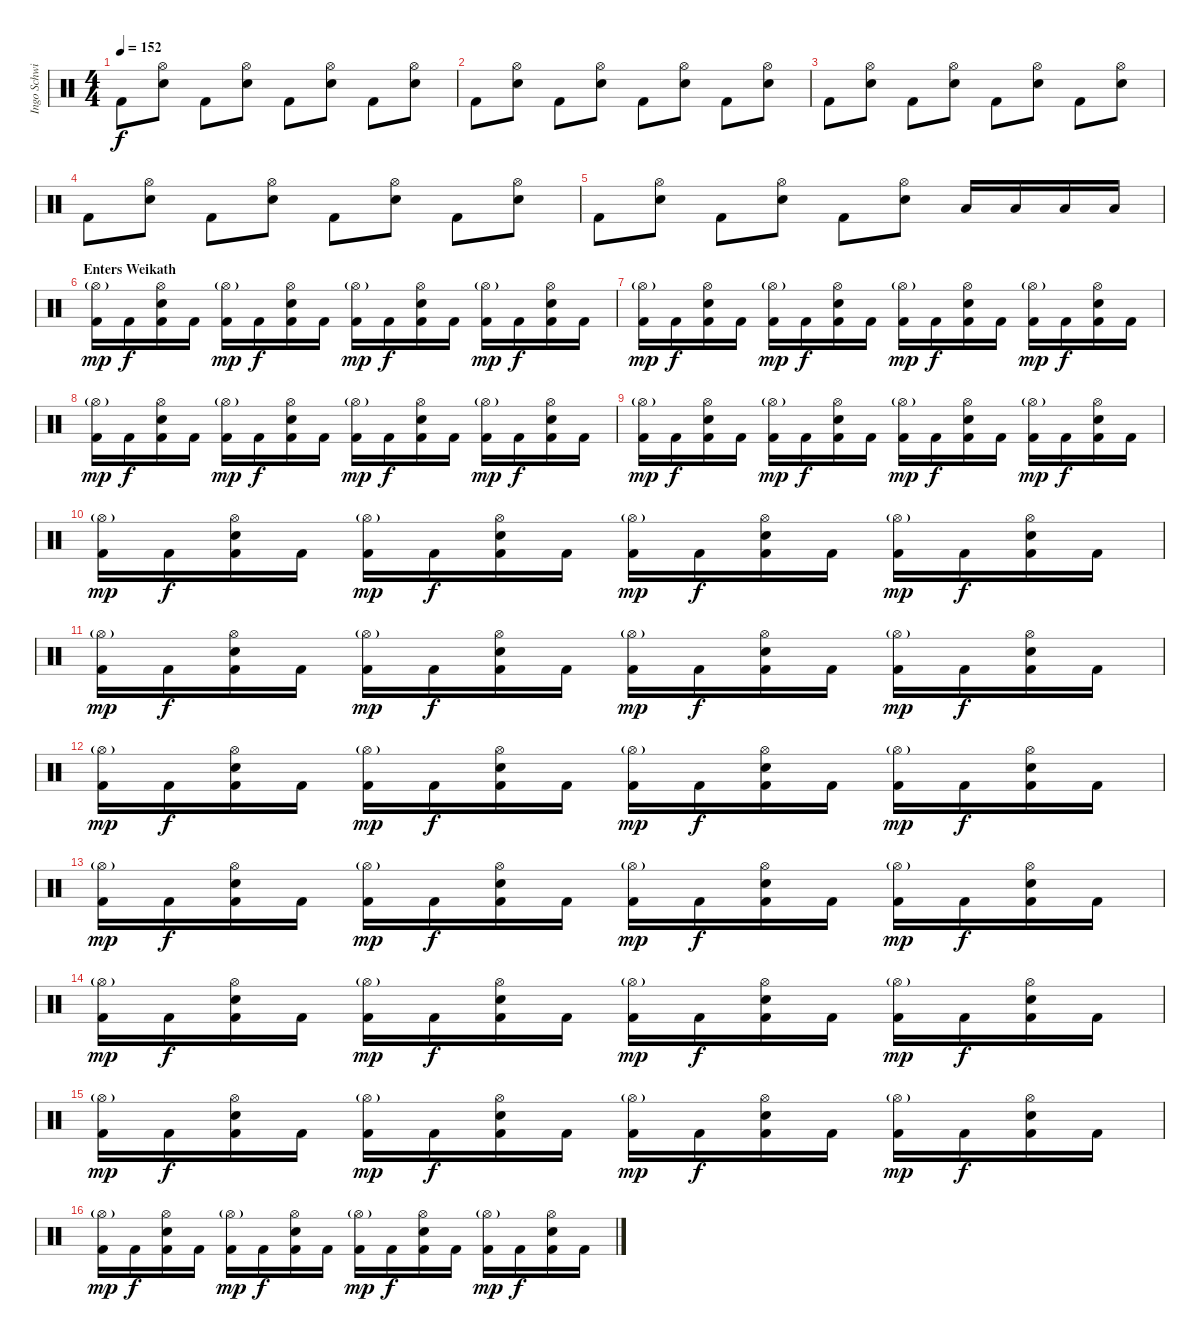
\track ("Ingo Schwichtenberg" "Ingo Schwi") {instrument percussion}
\staff {score}
\articulation defaults
\ts (4 4)
\tempo 152
\clef neutral
\ks c "Kick (hit) 2".8{dy f}
("Hi-Hat (open)" "Snare (hit) 2").8 "Kick (hit) 2".8 ("Hi-Hat (open)" "Snare (hit) 2").8 "Kick (hit) 2".8 ("Hi-Hat (open)" "Snare (hit) 2").8 "Kick (hit) 2".8 ("Hi-Hat (open)" "Snare (hit) 2").8 |
"Kick (hit) 2".8 ("Hi-Hat (open)" "Snare (hit) 2").8 "Kick (hit) 2".8 ("Hi-Hat (open)" "Snare (hit) 2").8 "Kick (hit) 2".8 ("Hi-Hat (open)" "Snare (hit) 2").8 "Kick (hit) 2".8 ("Hi-Hat (open)" "Snare (hit) 2").8 |
"Kick (hit) 2".8 ("Hi-Hat (open)" "Snare (hit) 2").8 "Kick (hit) 2".8 ("Hi-Hat (open)" "Snare (hit) 2").8 "Kick (hit) 2".8 ("Hi-Hat (open)" "Snare (hit) 2").8 "Kick (hit) 2".8 ("Hi-Hat (open)" "Snare (hit) 2").8 |
"Kick (hit) 2".8 ("Hi-Hat (open)" "Snare (hit) 2").8 "Kick (hit) 2".8 ("Hi-Hat (open)" "Snare (hit) 2").8 "Kick (hit) 2".8 ("Hi-Hat (open)" "Snare (hit) 2").8 "Kick (hit) 2".8 ("Hi-Hat (open)" "Snare (hit) 2").8 |
"Kick (hit) 2".8 ("Hi-Hat (open)" "Snare (hit) 2").8 "Kick (hit) 2".8 ("Hi-Hat (open)" "Snare (hit) 2").8 "Kick (hit) 2".8 ("Hi-Hat (open)" "Snare (hit) 2").8 "Low Tom (hit)".16 "Low Tom (hit)".16 "Low Tom (hit)".16 "Low Tom (hit)".16 |
\section ("" "Enters Weikath")
("Hi-Hat (open)"{g} "Kick (hit) 2").16{dy mp} "Kick (hit) 2".16{dy f} ("Hi-Hat (open)" "Snare (hit) 2" "Kick (hit) 2").16 "Kick (hit) 2".16 ("Hi-Hat (open)"{g} "Kick (hit) 2").16{dy mp} "Kick (hit) 2".16{dy f} ("Hi-Hat (open)" "Snare (hit) 2" "Kick (hit) 2").16 "Kick (hit) 2".16 ("Hi-Hat (open)"{g} "Kick (hit) 2").16{dy mp} "Kick (hit) 2".16{dy f} ("Hi-Hat (open)" "Snare (hit) 2" "Kick (hit) 2").16 "Kick (hit) 2".16 ("Hi-Hat (open)"{g} "Kick (hit) 2").16{dy mp} "Kick (hit) 2".16{dy f} ("Hi-Hat (open)" "Snare (hit) 2" "Kick (hit) 2").16 "Kick (hit) 2".16 |
("Hi-Hat (open)"{g} "Kick (hit) 2").16{dy mp} "Kick (hit) 2".16{dy f} ("Hi-Hat (open)" "Snare (hit) 2" "Kick (hit) 2").16 "Kick (hit) 2".16 ("Hi-Hat (open)"{g} "Kick (hit) 2").16{dy mp} "Kick (hit) 2".16{dy f} ("Hi-Hat (open)" "Snare (hit) 2" "Kick (hit) 2").16 "Kick (hit) 2".16 ("Hi-Hat (open)"{g} "Kick (hit) 2").16{dy mp} "Kick (hit) 2".16{dy f} ("Hi-Hat (open)" "Snare (hit) 2" "Kick (hit) 2").16 "Kick (hit) 2".16 ("Hi-Hat (open)"{g} "Kick (hit) 2").16{dy mp} "Kick (hit) 2".16{dy f} ("Hi-Hat (open)" "Snare (hit) 2" "Kick (hit) 2").16 "Kick (hit) 2".16 |
("Hi-Hat (open)"{g} "Kick (hit) 2").16{dy mp} "Kick (hit) 2".16{dy f} ("Hi-Hat (open)" "Snare (hit) 2" "Kick (hit) 2").16 "Kick (hit) 2".16 ("Hi-Hat (open)"{g} "Kick (hit) 2").16{dy mp} "Kick (hit) 2".16{dy f} ("Hi-Hat (open)" "Snare (hit) 2" "Kick (hit) 2").16 "Kick (hit) 2".16 ("Hi-Hat (open)"{g} "Kick (hit) 2").16{dy mp} "Kick (hit) 2".16{dy f} ("Hi-Hat (open)" "Snare (hit) 2" "Kick (hit) 2").16 "Kick (hit) 2".16 ("Hi-Hat (open)"{g} "Kick (hit) 2").16{dy mp} "Kick (hit) 2".16{dy f} ("Hi-Hat (open)" "Snare (hit) 2" "Kick (hit) 2").16 "Kick (hit) 2".16 |
("Hi-Hat (open)"{g} "Kick (hit) 2").16{dy mp} "Kick (hit) 2".16{dy f} ("Hi-Hat (open)" "Snare (hit) 2" "Kick (hit) 2").16 "Kick (hit) 2".16 ("Hi-Hat (open)"{g} "Kick (hit) 2").16{dy mp} "Kick (hit) 2".16{dy f} ("Hi-Hat (open)" "Snare (hit) 2" "Kick (hit) 2").16 "Kick (hit) 2".16 ("Hi-Hat (open)"{g} "Kick (hit) 2").16{dy mp} "Kick (hit) 2".16{dy f} ("Hi-Hat (open)" "Snare (hit) 2" "Kick (hit) 2").16 "Kick (hit) 2".16 ("Hi-Hat (open)"{g} "Kick (hit) 2").16{dy mp} "Kick (hit) 2".16{dy f} ("Hi-Hat (open)" "Snare (hit) 2" "Kick (hit) 2").16 "Kick (hit) 2".16 |
("Hi-Hat (open)"{g} "Kick (hit) 2").16{dy mp} "Kick (hit) 2".16{dy f} ("Hi-Hat (open)" "Snare (hit) 2" "Kick (hit) 2").16 "Kick (hit) 2".16 ("Hi-Hat (open)"{g} "Kick (hit) 2").16{dy mp} "Kick (hit) 2".16{dy f} ("Hi-Hat (open)" "Snare (hit) 2" "Kick (hit) 2").16 "Kick (hit) 2".16 ("Hi-Hat (open)"{g} "Kick (hit) 2").16{dy mp} "Kick (hit) 2".16{dy f} ("Hi-Hat (open)" "Snare (hit) 2" "Kick (hit) 2").16 "Kick (hit) 2".16 ("Hi-Hat (open)"{g} "Kick (hit) 2").16{dy mp} "Kick (hit) 2".16{dy f} ("Hi-Hat (open)" "Snare (hit) 2" "Kick (hit) 2").16 "Kick (hit) 2".16 |
("Hi-Hat (open)"{g} "Kick (hit) 2").16{dy mp} "Kick (hit) 2".16{dy f} ("Hi-Hat (open)" "Snare (hit) 2" "Kick (hit) 2").16 "Kick (hit) 2".16 ("Hi-Hat (open)"{g} "Kick (hit) 2").16{dy mp} "Kick (hit) 2".16{dy f} ("Hi-Hat (open)" "Snare (hit) 2" "Kick (hit) 2").16 "Kick (hit) 2".16 ("Hi-Hat (open)"{g} "Kick (hit) 2").16{dy mp} "Kick (hit) 2".16{dy f} ("Hi-Hat (open)" "Snare (hit) 2" "Kick (hit) 2").16 "Kick (hit) 2".16 ("Hi-Hat (open)"{g} "Kick (hit) 2").16{dy mp} "Kick (hit) 2".16{dy f} ("Hi-Hat (open)" "Snare (hit) 2" "Kick (hit) 2").16 "Kick (hit) 2".16 |
("Hi-Hat (open)"{g} "Kick (hit) 2").16{dy mp} "Kick (hit) 2".16{dy f} ("Hi-Hat (open)" "Snare (hit) 2" "Kick (hit) 2").16 "Kick (hit) 2".16 ("Hi-Hat (open)"{g} "Kick (hit) 2").16{dy mp} "Kick (hit) 2".16{dy f} ("Hi-Hat (open)" "Snare (hit) 2" "Kick (hit) 2").16 "Kick (hit) 2".16 ("Hi-Hat (open)"{g} "Kick (hit) 2").16{dy mp} "Kick (hit) 2".16{dy f} ("Hi-Hat (open)" "Snare (hit) 2" "Kick (hit) 2").16 "Kick (hit) 2".16 ("Hi-Hat (open)"{g} "Kick (hit) 2").16{dy mp} "Kick (hit) 2".16{dy f} ("Hi-Hat (open)" "Snare (hit) 2" "Kick (hit) 2").16 "Kick (hit) 2".16 |
("Hi-Hat (open)"{g} "Kick (hit) 2").16{dy mp} "Kick (hit) 2".16{dy f} ("Hi-Hat (open)" "Snare (hit) 2" "Kick (hit) 2").16 "Kick (hit) 2".16 ("Hi-Hat (open)"{g} "Kick (hit) 2").16{dy mp} "Kick (hit) 2".16{dy f} ("Hi-Hat (open)" "Snare (hit) 2" "Kick (hit) 2").16 "Kick (hit) 2".16 ("Hi-Hat (open)"{g} "Kick (hit) 2").16{dy mp} "Kick (hit) 2".16{dy f} ("Hi-Hat (open)" "Snare (hit) 2" "Kick (hit) 2").16 "Kick (hit) 2".16 ("Hi-Hat (open)"{g} "Kick (hit) 2").16{dy mp} "Kick (hit) 2".16{dy f} ("Hi-Hat (open)" "Snare (hit) 2" "Kick (hit) 2").16 "Kick (hit) 2".16 |
("Hi-Hat (open)"{g} "Kick (hit) 2").16{dy mp} "Kick (hit) 2".16{dy f} ("Hi-Hat (open)" "Snare (hit) 2" "Kick (hit) 2").16 "Kick (hit) 2".16 ("Hi-Hat (open)"{g} "Kick (hit) 2").16{dy mp} "Kick (hit) 2".16{dy f} ("Hi-Hat (open)" "Snare (hit) 2" "Kick (hit) 2").16 "Kick (hit) 2".16 ("Hi-Hat (open)"{g} "Kick (hit) 2").16{dy mp} "Kick (hit) 2".16{dy f} ("Hi-Hat (open)" "Snare (hit) 2" "Kick (hit) 2").16 "Kick (hit) 2".16 ("Hi-Hat (open)"{g} "Kick (hit) 2").16{dy mp} "Kick (hit) 2".16{dy f} ("Hi-Hat (open)" "Snare (hit) 2" "Kick (hit) 2").16 "Kick (hit) 2".16 |
("Hi-Hat (open)"{g} "Kick (hit) 2").16{dy mp} "Kick (hit) 2".16{dy f} ("Hi-Hat (open)" "Snare (hit) 2" "Kick (hit) 2").16 "Kick (hit) 2".16 ("Hi-Hat (open)"{g} "Kick (hit) 2").16{dy mp} "Kick (hit) 2".16{dy f} ("Hi-Hat (open)" "Snare (hit) 2" "Kick (hit) 2").16 "Kick (hit) 2".16 ("Hi-Hat (open)"{g} "Kick (hit) 2").16{dy mp} "Kick (hit) 2".16{dy f} ("Hi-Hat (open)" "Snare (hit) 2" "Kick (hit) 2").16 "Kick (hit) 2".16 ("Hi-Hat (open)"{g} "Kick (hit) 2").16{dy mp} "Kick (hit) 2".16{dy f} ("Hi-Hat (open)" "Snare (hit) 2" "Kick (hit) 2").16 "Kick (hit) 2".16 |
("Hi-Hat (open)"{g} "Kick (hit) 2").16{dy mp} "Kick (hit) 2".16{dy f} ("Hi-Hat (open)" "Snare (hit) 2" "Kick (hit) 2").16 "Kick (hit) 2".16 ("Hi-Hat (open)"{g} "Kick (hit) 2").16{dy mp} "Kick (hit) 2".16{dy f} ("Hi-Hat (open)" "Snare (hit) 2" "Kick (hit) 2").16 "Kick (hit) 2".16 ("Hi-Hat (open)"{g} "Kick (hit) 2").16{dy mp} "Kick (hit) 2".16{dy f} ("Hi-Hat (open)" "Snare (hit) 2" "Kick (hit) 2").16 "Kick (hit) 2".16 ("Hi-Hat (open)"{g} "Kick (hit) 2").16{dy mp} "Kick (hit) 2".16{dy f} ("Hi-Hat (open)" "Snare (hit) 2" "Kick (hit) 2").16 "Kick (hit) 2".16
